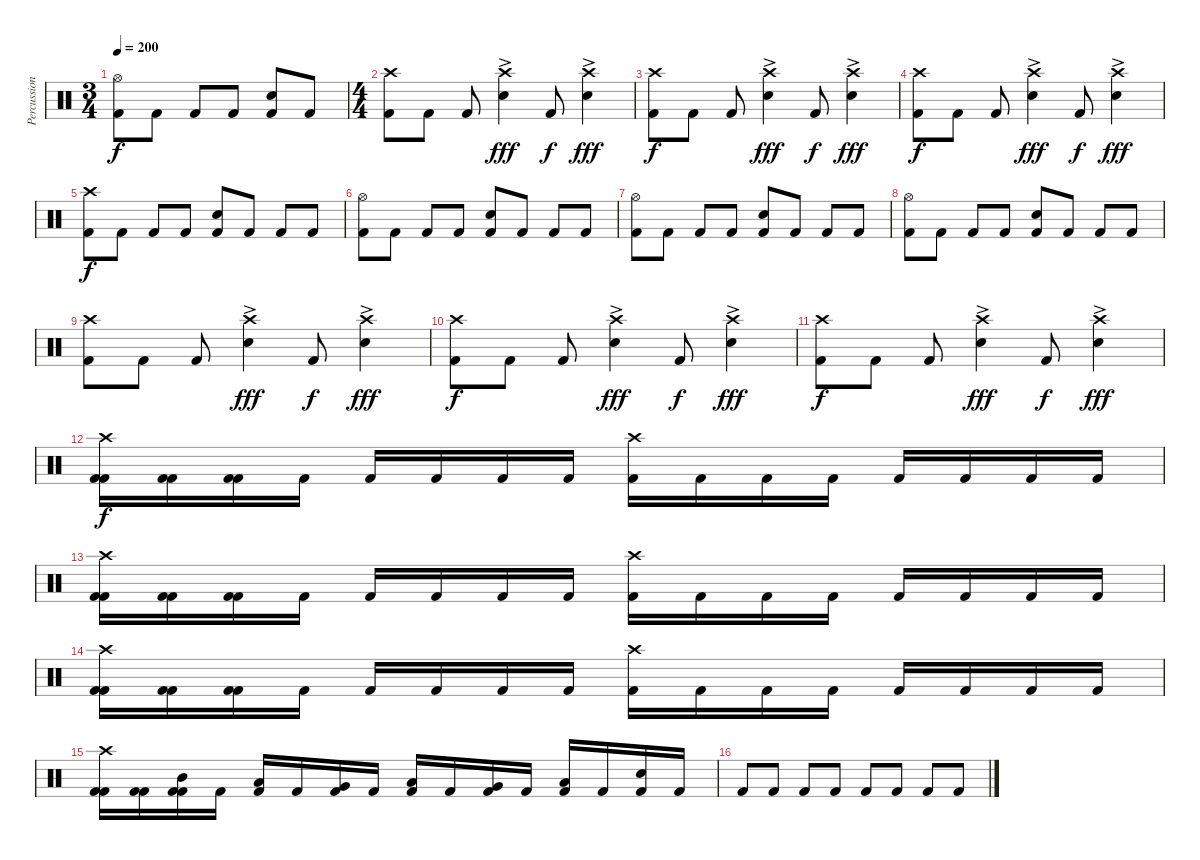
\track ("Percussion" "Percussion") {instrument percussion}
\staff {score}
\articulation defaults
\ts (3 4)
\tempo 200
\clef neutral
\ks c
("Hi-Hat (open)" "Kick (hit) 2").8{dy f} "Kick (hit) 2".8 "Kick (hit) 2".8 "Kick (hit) 2".8 ("Electric Snare (hit)" "Kick (hit) 2").8 "Kick (hit) 2".8 |
\ts (4 4)
("Crash high (hit)" "Kick (hit) 2").8 "Kick (hit) 2".8 "Kick (hit) 2".8 ("Crash high (hit)" "Electric Snare (hit)"{ac}).4{dy fff} "Kick (hit) 2".8{dy f} ("Crash high (hit)" "Electric Snare (hit)"{ac}).4{dy fff} |
("Crash high (hit)" "Kick (hit) 2").8{dy f} "Kick (hit) 2".8 "Kick (hit) 2".8 ("Crash high (hit)" "Electric Snare (hit)"{ac}).4{dy fff} "Kick (hit) 2".8{dy f} ("Crash high (hit)" "Electric Snare (hit)"{ac}).4{dy fff} |
("Crash high (hit)" "Kick (hit) 2").8{dy f} "Kick (hit) 2".8 "Kick (hit) 2".8 ("Crash high (hit)" "Electric Snare (hit)"{ac}).4{dy fff} "Kick (hit) 2".8{dy f} ("Crash high (hit)" "Electric Snare (hit)"{ac}).4{dy fff} |
("Crash high (hit)" "Kick (hit) 2").8{dy f} "Kick (hit) 2".8 "Kick (hit) 2".8 "Kick (hit) 2".8 ("Electric Snare (hit)" "Kick (hit) 2").8 "Kick (hit) 2".8 "Kick (hit) 2".8 "Kick (hit) 2".8 |
("Hi-Hat (open)" "Kick (hit) 2").8 "Kick (hit) 2".8 "Kick (hit) 2".8 "Kick (hit) 2".8 ("Electric Snare (hit)" "Kick (hit) 2").8 "Kick (hit) 2".8 "Kick (hit) 2".8 "Kick (hit) 2".8 |
("Hi-Hat (open)" "Kick (hit) 2").8 "Kick (hit) 2".8 "Kick (hit) 2".8 "Kick (hit) 2".8 ("Electric Snare (hit)" "Kick (hit) 2").8 "Kick (hit) 2".8 "Kick (hit) 2".8 "Kick (hit) 2".8 |
("Hi-Hat (open)" "Kick (hit) 2").8 "Kick (hit) 2".8 "Kick (hit) 2".8 "Kick (hit) 2".8 ("Electric Snare (hit)" "Kick (hit) 2").8 "Kick (hit) 2".8 "Kick (hit) 2".8 "Kick (hit) 2".8 |
("Crash high (hit)" "Kick (hit) 2").8 "Kick (hit) 2".8 "Kick (hit) 2".8 ("Crash high (hit)" "Electric Snare (hit)"{ac}).4{dy fff} "Kick (hit) 2".8{dy f} ("Crash high (hit)" "Electric Snare (hit)"{ac}).4{dy fff} |
("Crash high (hit)" "Kick (hit) 2").8{dy f} "Kick (hit) 2".8 "Kick (hit) 2".8 ("Crash high (hit)" "Electric Snare (hit)"{ac}).4{dy fff} "Kick (hit) 2".8{dy f} ("Crash high (hit)" "Electric Snare (hit)"{ac}).4{dy fff} |
("Crash high (hit)" "Kick (hit) 2").8{dy f} "Kick (hit) 2".8 "Kick (hit) 2".8 ("Crash high (hit)" "Electric Snare (hit)"{ac}).4{dy fff} "Kick (hit) 2".8{dy f} ("Crash high (hit)" "Electric Snare (hit)"{ac}).4{dy fff} |
("Crash high (hit)" "Kick (hit) 2" "Kick (hit) 2").16{dy f} ("Kick (hit) 2" "Kick (hit) 2").16 ("Kick (hit) 2" "Kick (hit) 2").16 "Kick (hit) 2".16 "Kick (hit) 2".16 "Kick (hit) 2".16 "Kick (hit) 2".16 "Kick (hit) 2".16 ("Crash high (hit)" "Kick (hit) 2").16 "Kick (hit) 2".16 "Kick (hit) 2".16 "Kick (hit) 2".16 "Kick (hit) 2".16 "Kick (hit) 2".16 "Kick (hit) 2".16 "Kick (hit) 2".16 |
("Crash high (hit)" "Kick (hit) 2" "Kick (hit) 2").16 ("Kick (hit) 2" "Kick (hit) 2").16 ("Kick (hit) 2" "Kick (hit) 2").16 "Kick (hit) 2".16 "Kick (hit) 2".16 "Kick (hit) 2".16 "Kick (hit) 2".16 "Kick (hit) 2".16 ("Crash high (hit)" "Kick (hit) 2").16 "Kick (hit) 2".16 "Kick (hit) 2".16 "Kick (hit) 2".16 "Kick (hit) 2".16 "Kick (hit) 2".16 "Kick (hit) 2".16 "Kick (hit) 2".16 |
("Crash high (hit)" "Kick (hit) 2" "Kick (hit) 2").16 ("Kick (hit) 2" "Kick (hit) 2").16 ("Kick (hit) 2" "Kick (hit) 2").16 "Kick (hit) 2".16 "Kick (hit) 2".16 "Kick (hit) 2".16 "Kick (hit) 2".16 "Kick (hit) 2".16 ("Crash high (hit)" "Kick (hit) 2").16 "Kick (hit) 2".16 "Kick (hit) 2".16 "Kick (hit) 2".16 "Kick (hit) 2".16 "Kick (hit) 2".16 "Kick (hit) 2".16 "Kick (hit) 2".16 |
("Crash high (hit)" "Kick (hit) 2" "Kick (hit) 2").16 ("Kick (hit) 2" "Kick (hit) 2").16 ("Mid Tom (hit)" "Kick (hit) 2" "Kick (hit) 2").16 "Kick (hit) 2".16 ("Low Tom (hit)" "Kick (hit) 2").16 "Kick (hit) 2".16 ("Very Low Tom (hit)" "Kick (hit) 2").16 "Kick (hit) 2".16 ("Low Tom (hit)" "Kick (hit) 2").16 "Kick (hit) 2".16 ("Very Low Tom (hit)" "Kick (hit) 2").16 "Kick (hit) 2".16 ("Low Floor Tom (hit)" "Kick (hit) 2").16 "Kick (hit) 2".16 ("Electric Snare (hit)" "Kick (hit) 2").16 "Kick (hit) 2".16 |
"Kick (hit) 2".8 "Kick (hit) 2".8 "Kick (hit) 2".8 "Kick (hit) 2".8 "Kick (hit) 2".8 "Kick (hit) 2".8 "Kick (hit) 2".8 "Kick (hit) 2".8
